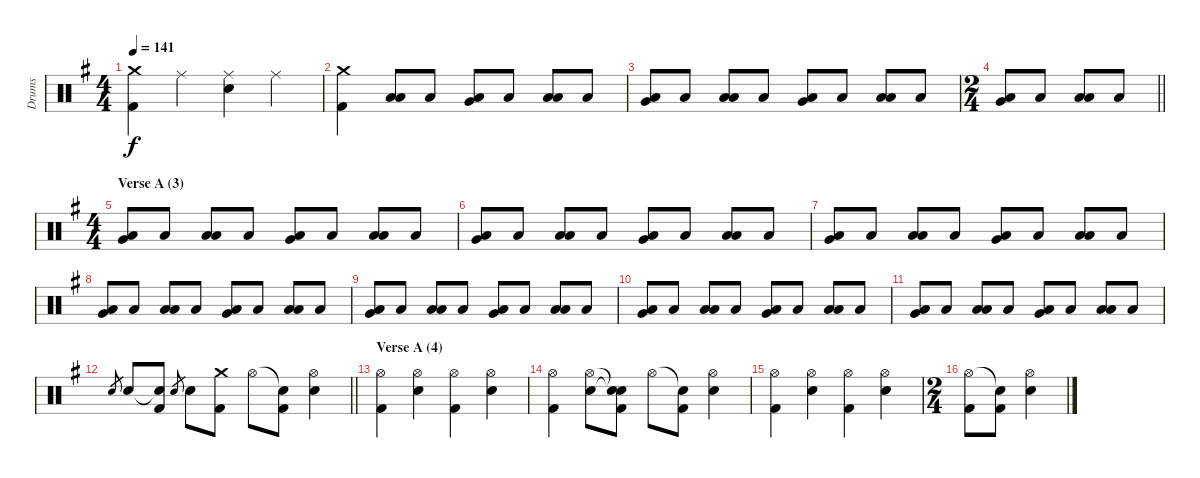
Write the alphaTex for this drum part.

\track ("Drums" "Drums") {instrument percussion}
\staff {score}
\articulation defaults
\ts (4 4)
\tempo 141
\clef neutral
\ks g
("Crash medium (hit)" "Kick (hit) 2").4{dy f} "Ride (middle)".4 ("Ride (middle)" "Electric Snare (hit)").4 "Ride (middle)".4 |
("Crash medium (hit)" "Kick (hit) 2").4 ("Low Tom (hit)" "Low Floor Tom (hit)").8 "Low Floor Tom (hit)".8 ("Very Low Tom (hit)" "Low Floor Tom (hit)").8 "Low Floor Tom (hit)".8 ("Low Tom (hit)" "Low Floor Tom (hit)").8 "Low Floor Tom (hit)".8 |
("Very Low Tom (hit)" "Low Floor Tom (hit)").8 "Low Floor Tom (hit)".8 ("Low Tom (hit)" "Low Floor Tom (hit)").8 "Low Floor Tom (hit)".8 ("Very Low Tom (hit)" "Low Floor Tom (hit)").8 "Low Floor Tom (hit)".8 ("Low Tom (hit)" "Low Floor Tom (hit)").8 "Low Floor Tom (hit)".8 |
\ts (2 4)
\barLineRight lightlight
("Very Low Tom (hit)" "Low Floor Tom (hit)").8 "Low Floor Tom (hit)".8 ("Low Tom (hit)" "Low Floor Tom (hit)").8 "Low Floor Tom (hit)".8 |
\ts (4 4)
\section ("" "Verse A (3)")
("Very Low Tom (hit)" "Low Floor Tom (hit)").8 "Low Floor Tom (hit)".8 ("Low Tom (hit)" "Low Floor Tom (hit)").8 "Low Floor Tom (hit)".8 ("Very Low Tom (hit)" "Low Floor Tom (hit)").8 "Low Floor Tom (hit)".8 ("Low Tom (hit)" "Low Floor Tom (hit)").8 "Low Floor Tom (hit)".8 |
("Very Low Tom (hit)" "Low Floor Tom (hit)").8 "Low Floor Tom (hit)".8 ("Low Tom (hit)" "Low Floor Tom (hit)").8 "Low Floor Tom (hit)".8 ("Very Low Tom (hit)" "Low Floor Tom (hit)").8 "Low Floor Tom (hit)".8 ("Low Tom (hit)" "Low Floor Tom (hit)").8 "Low Floor Tom (hit)".8 |
("Very Low Tom (hit)" "Low Floor Tom (hit)").8 "Low Floor Tom (hit)".8 ("Low Tom (hit)" "Low Floor Tom (hit)").8 "Low Floor Tom (hit)".8 ("Very Low Tom (hit)" "Low Floor Tom (hit)").8 "Low Floor Tom (hit)".8 ("Low Tom (hit)" "Low Floor Tom (hit)").8 "Low Floor Tom (hit)".8 |
("Very Low Tom (hit)" "Low Floor Tom (hit)").8 "Low Floor Tom (hit)".8 ("Low Tom (hit)" "Low Floor Tom (hit)").8 "Low Floor Tom (hit)".8 ("Very Low Tom (hit)" "Low Floor Tom (hit)").8 "Low Floor Tom (hit)".8 ("Low Tom (hit)" "Low Floor Tom (hit)").8 "Low Floor Tom (hit)".8 |
("Very Low Tom (hit)" "Low Floor Tom (hit)").8 "Low Floor Tom (hit)".8 ("Low Tom (hit)" "Low Floor Tom (hit)").8 "Low Floor Tom (hit)".8 ("Very Low Tom (hit)" "Low Floor Tom (hit)").8 "Low Floor Tom (hit)".8 ("Low Tom (hit)" "Low Floor Tom (hit)").8 "Low Floor Tom (hit)".8 |
("Very Low Tom (hit)" "Low Floor Tom (hit)").8 "Low Floor Tom (hit)".8 ("Low Tom (hit)" "Low Floor Tom (hit)").8 "Low Floor Tom (hit)".8 ("Very Low Tom (hit)" "Low Floor Tom (hit)").8 "Low Floor Tom (hit)".8 ("Low Tom (hit)" "Low Floor Tom (hit)").8 "Low Floor Tom (hit)".8 |
("Very Low Tom (hit)" "Low Floor Tom (hit)").8 "Low Floor Tom (hit)".8 ("Low Tom (hit)" "Low Floor Tom (hit)").8 "Low Floor Tom (hit)".8 ("Very Low Tom (hit)" "Low Floor Tom (hit)").8 "Low Floor Tom (hit)".8 ("Low Tom (hit)" "Low Floor Tom (hit)").8 "Low Floor Tom (hit)".8 |
\barLineRight lightlight "Electric Snare (hit)".8{gr} "Electric Snare (hit)".8
("Snare (hit)"{t} "Kick (hit) 2").8 "Electric Snare (hit)".8{gr} "Electric Snare (hit)".8 ("Crash medium (hit)" "Kick (hit) 2").8 "Hi-Hat (open)".8 ("Snare (hit)"{t} "Kick (hit) 2").8 ("Hi-Hat (open)" "Electric Snare (hit)").4 |
\section ("" "Verse A (4)")
("Hi-Hat (open)" "Kick (hit) 2").4 ("Hi-Hat (open)" "Electric Snare (hit)").4 ("Hi-Hat (open)" "Kick (hit) 2").4 ("Hi-Hat (open)" "Electric Snare (hit)").4 |
("Hi-Hat (open)" "Kick (hit) 2").4 ("Hi-Hat (open)" "Electric Snare (hit)").8 ("Snare (hit)"{t} "Snare (hit)"{t} "Kick (hit) 2").8 "Hi-Hat (open)".8 ("Snare (hit)"{t} "Kick (hit) 2").8 ("Hi-Hat (open)" "Electric Snare (hit)").4 |
("Hi-Hat (open)" "Kick (hit) 2").4 ("Hi-Hat (open)" "Electric Snare (hit)").4 ("Hi-Hat (open)" "Kick (hit) 2").4 ("Hi-Hat (open)" "Electric Snare (hit)").4 |
\ts (2 4)
("Hi-Hat (open)" "Kick (hit) 2").8 ("Snare (hit)"{t} "Kick (hit) 2").8 ("Hi-Hat (open)" "Electric Snare (hit)").4
